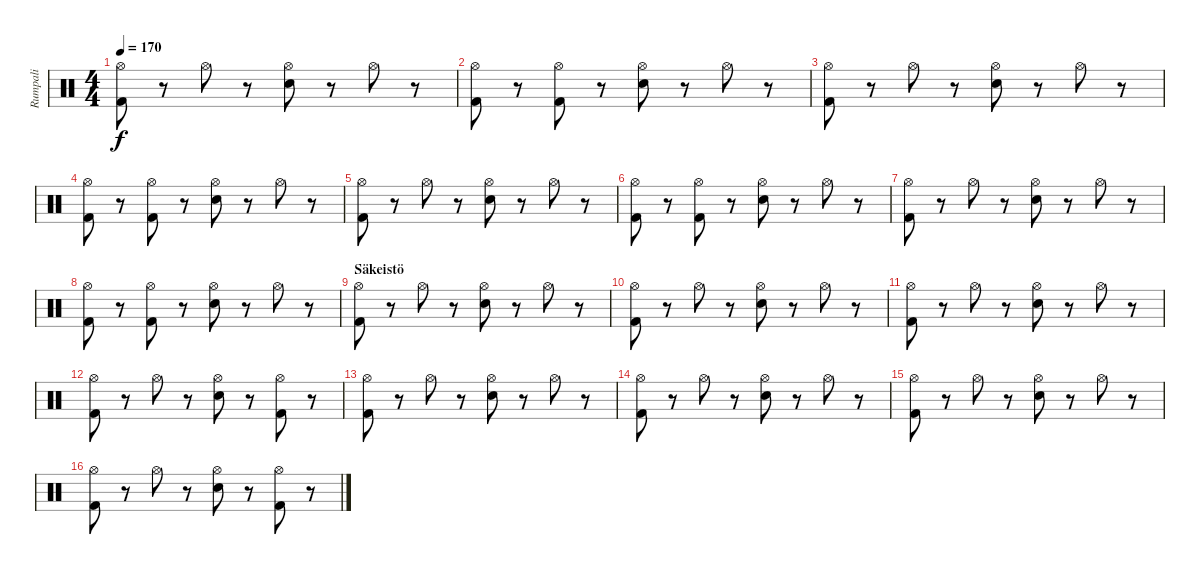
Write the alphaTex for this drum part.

\track ("Rumpali" "Rumpali") {instrument percussion}
\staff {score}
\articulation defaults
\ts (4 4)
\tempo 170
\clef neutral
\ks c
("Hi-Hat (open)" "Kick (hit) 2").8{dy f} r.8 "Hi-Hat (open)".8 r.8 ("Hi-Hat (open)" "Electric Snare (hit)").8 r.8 "Hi-Hat (open)".8 r.8 |
("Hi-Hat (open)" "Kick (hit) 2").8 r.8 ("Hi-Hat (open)" "Kick (hit) 2").8 r.8 ("Hi-Hat (open)" "Electric Snare (hit)").8 r.8 "Hi-Hat (open)".8 r.8 |
("Hi-Hat (open)" "Kick (hit) 2").8 r.8 "Hi-Hat (open)".8 r.8 ("Hi-Hat (open)" "Electric Snare (hit)").8 r.8 "Hi-Hat (open)".8 r.8 |
("Hi-Hat (open)" "Kick (hit) 2").8 r.8 ("Hi-Hat (open)" "Kick (hit) 2").8 r.8 ("Hi-Hat (open)" "Electric Snare (hit)").8 r.8 "Hi-Hat (open)".8 r.8 |
("Hi-Hat (open)" "Kick (hit) 2").8 r.8 "Hi-Hat (open)".8 r.8 ("Hi-Hat (open)" "Electric Snare (hit)").8 r.8 "Hi-Hat (open)".8 r.8 |
("Hi-Hat (open)" "Kick (hit) 2").8 r.8 ("Hi-Hat (open)" "Kick (hit) 2").8 r.8 ("Hi-Hat (open)" "Electric Snare (hit)").8 r.8 "Hi-Hat (open)".8 r.8 |
("Hi-Hat (open)" "Kick (hit) 2").8 r.8 "Hi-Hat (open)".8 r.8 ("Hi-Hat (open)" "Electric Snare (hit)").8 r.8 "Hi-Hat (open)".8 r.8 |
("Hi-Hat (open)" "Kick (hit) 2").8 r.8 ("Hi-Hat (open)" "Kick (hit) 2").8 r.8 ("Hi-Hat (open)" "Electric Snare (hit)").8 r.8 "Hi-Hat (open)".8 r.8 |
\section ("" "Säkeistö")
("Hi-Hat (open)" "Kick (hit) 2").8 r.8 "Hi-Hat (open)".8 r.8 ("Hi-Hat (open)" "Electric Snare (hit)").8 r.8 "Hi-Hat (open)".8 r.8 |
("Hi-Hat (open)" "Kick (hit) 2").8 r.8 "Hi-Hat (open)".8 r.8 ("Hi-Hat (open)" "Electric Snare (hit)").8 r.8 "Hi-Hat (open)".8 r.8 |
("Hi-Hat (open)" "Kick (hit) 2").8 r.8 "Hi-Hat (open)".8 r.8 ("Hi-Hat (open)" "Electric Snare (hit)").8 r.8 "Hi-Hat (open)".8 r.8 |
("Hi-Hat (open)" "Kick (hit) 2").8 r.8 "Hi-Hat (open)".8 r.8 ("Hi-Hat (open)" "Electric Snare (hit)").8 r.8 ("Hi-Hat (open)" "Kick (hit) 2").8 r.8 |
("Hi-Hat (open)" "Kick (hit) 2").8 r.8 "Hi-Hat (open)".8 r.8 ("Hi-Hat (open)" "Electric Snare (hit)").8 r.8 "Hi-Hat (open)".8 r.8 |
("Hi-Hat (open)" "Kick (hit) 2").8 r.8 "Hi-Hat (open)".8 r.8 ("Hi-Hat (open)" "Electric Snare (hit)").8 r.8 "Hi-Hat (open)".8 r.8 |
("Hi-Hat (open)" "Kick (hit) 2").8 r.8 "Hi-Hat (open)".8 r.8 ("Hi-Hat (open)" "Electric Snare (hit)").8 r.8 "Hi-Hat (open)".8 r.8 |
("Hi-Hat (open)" "Kick (hit) 2").8 r.8 "Hi-Hat (open)".8 r.8 ("Hi-Hat (open)" "Electric Snare (hit)").8 r.8 ("Hi-Hat (open)" "Kick (hit) 2").8 r.8
